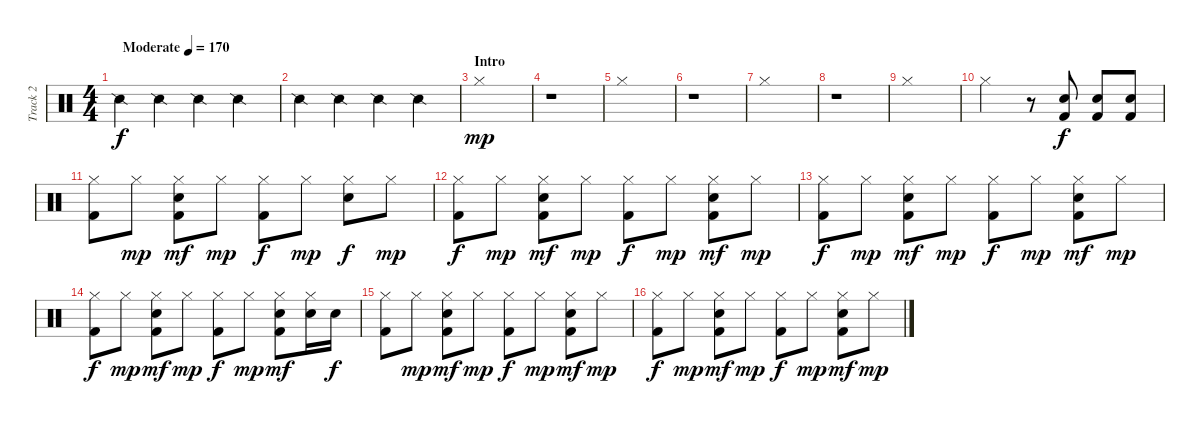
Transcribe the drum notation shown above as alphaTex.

\track ("Track 2" "Track 2") {instrument percussion}
\staff {score}
\articulation defaults
\ts (4 4)
\tempo (170 "Moderate")
\clef neutral
\ks c "Snare (side stick) 2".4{dy f} "Snare (side stick) 2".4 "Snare (side stick) 2".4 "Snare (side stick) 2".4
|
"Snare (side stick) 2".4 "Snare (side stick) 2".4 "Snare (side stick) 2".4 "Snare (side stick) 2".4 |
\section ("" "Intro")
"Hi-Hat (closed)".1{dy mp} |
r.1 |
"Hi-Hat (closed)".1 |
r.1 |
"Hi-Hat (closed)".1 |
r.1 |
"Hi-Hat (closed)".1 |
"Hi-Hat (closed)".2 r.8 ("Electric Snare (hit)" "Kick (hit) 2").8{dy f} ("Electric Snare (hit)" "Kick (hit) 2").8 ("Electric Snare (hit)" "Kick (hit) 2").8 |
("Hi-Hat (closed)" "Kick (hit) 2").8 "Hi-Hat (closed)".8{dy mp} ("Hi-Hat (closed)" "Electric Snare (hit)" "Kick (hit) 2").8{dy mf} "Hi-Hat (closed)".8{dy mp} ("Hi-Hat (closed)" "Kick (hit) 2").8{dy f} "Hi-Hat (closed)".8{dy mp} ("Hi-Hat (closed)" "Electric Snare (hit)").8{dy f} "Hi-Hat (closed)".8{dy mp} |
("Hi-Hat (closed)" "Kick (hit) 2").8{dy f} "Hi-Hat (closed)".8{dy mp} ("Hi-Hat (closed)" "Electric Snare (hit)" "Kick (hit) 2").8{dy mf} "Hi-Hat (closed)".8{dy mp} ("Hi-Hat (closed)" "Kick (hit) 2").8{dy f} "Hi-Hat (closed)".8{dy mp} ("Hi-Hat (closed)" "Electric Snare (hit)" "Kick (hit) 2").8{dy mf} "Hi-Hat (closed)".8{dy mp} |
("Hi-Hat (closed)" "Kick (hit) 2").8{dy f} "Hi-Hat (closed)".8{dy mp} ("Hi-Hat (closed)" "Electric Snare (hit)" "Kick (hit) 2").8{dy mf} "Hi-Hat (closed)".8{dy mp} ("Hi-Hat (closed)" "Kick (hit) 2").8{dy f} "Hi-Hat (closed)".8{dy mp} ("Hi-Hat (closed)" "Electric Snare (hit)" "Kick (hit) 2").8{dy mf} "Hi-Hat (closed)".8{dy mp} |
("Hi-Hat (closed)" "Kick (hit) 2").8{dy f} "Hi-Hat (closed)".8{dy mp} ("Hi-Hat (closed)" "Electric Snare (hit)" "Kick (hit) 2").8{dy mf} "Hi-Hat (closed)".8{dy mp} ("Hi-Hat (closed)" "Kick (hit) 2").8{dy f} "Hi-Hat (closed)".8{dy mp} ("Hi-Hat (closed)" "Electric Snare (hit)" "Kick (hit) 2").8{dy mf} ("Hi-Hat (closed)" "Electric Snare (hit)").16 "Electric Snare (hit)".16{dy f} |
("Hi-Hat (closed)" "Kick (hit) 2").8 "Hi-Hat (closed)".8{dy mp} ("Hi-Hat (closed)" "Electric Snare (hit)" "Kick (hit) 2").8{dy mf} "Hi-Hat (closed)".8{dy mp} ("Hi-Hat (closed)" "Kick (hit) 2").8{dy f} "Hi-Hat (closed)".8{dy mp} ("Hi-Hat (closed)" "Electric Snare (hit)" "Kick (hit) 2").8{dy mf} "Hi-Hat (closed)".8{dy mp} |
("Hi-Hat (closed)" "Kick (hit) 2").8{dy f} "Hi-Hat (closed)".8{dy mp} ("Hi-Hat (closed)" "Electric Snare (hit)" "Kick (hit) 2").8{dy mf} "Hi-Hat (closed)".8{dy mp} ("Hi-Hat (closed)" "Kick (hit) 2").8{dy f} "Hi-Hat (closed)".8{dy mp} ("Hi-Hat (closed)" "Electric Snare (hit)" "Kick (hit) 2").8{dy mf} "Hi-Hat (closed)".8{dy mp}
